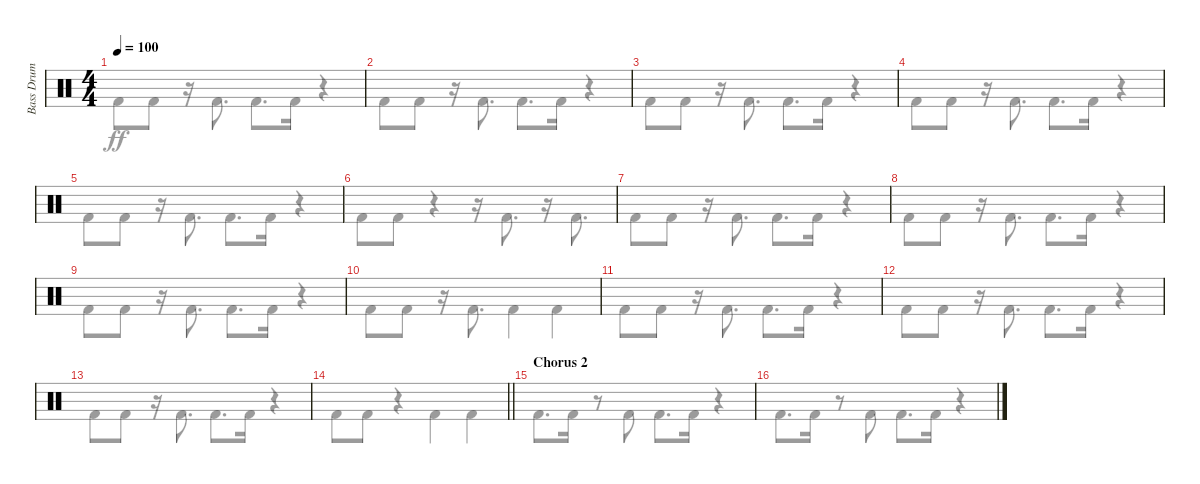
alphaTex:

\track ("Bass Drum" "Bass Drum") {instrument percussion}
\staff {score}
\articulation defaults
\voice
\ts (4 4)
\tempo 100
\clef neutral
\ks c
|
|
|
|
|
|
|
|
|
|
|
|
|
\barLineRight lightlight
|
\section ("" "Chorus 2")
|
\voice
\clef neutral
\ks c "Kick (hit) 2".8{dy ff} "Kick (hit) 2".8
r.16 "Kick (hit) 2".8{d} "Kick (hit) 2".8{d} "Kick (hit) 2".16 r.4 |
"Kick (hit) 2".8 "Kick (hit) 2".8 r.16 "Kick (hit) 2".8{d} "Kick (hit) 2".8{d} "Kick (hit) 2".16 r.4 |
"Kick (hit) 2".8 "Kick (hit) 2".8 r.16 "Kick (hit) 2".8{d} "Kick (hit) 2".8{d} "Kick (hit) 2".16 r.4 |
"Kick (hit) 2".8 "Kick (hit) 2".8 r.16 "Kick (hit) 2".8{d} "Kick (hit) 2".8{d} "Kick (hit) 2".16 r.4 |
"Kick (hit) 2".8 "Kick (hit) 2".8 r.16 "Kick (hit) 2".8{d} "Kick (hit) 2".8{d} "Kick (hit) 2".16 r.4 |
"Kick (hit) 2".8 "Kick (hit) 2".8 r.4 r.16 "Kick (hit) 2".8{d} r.16 "Kick (hit) 2".8{d} |
"Kick (hit) 2".8 "Kick (hit) 2".8 r.16 "Kick (hit) 2".8{d} "Kick (hit) 2".8{d} "Kick (hit) 2".16 r.4 |
"Kick (hit) 2".8 "Kick (hit) 2".8 r.16 "Kick (hit) 2".8{d} "Kick (hit) 2".8{d} "Kick (hit) 2".16 r.4 |
"Kick (hit) 2".8 "Kick (hit) 2".8 r.16 "Kick (hit) 2".8{d} "Kick (hit) 2".8{d} "Kick (hit) 2".16 r.4 |
"Kick (hit) 2".8 "Kick (hit) 2".8 r.16 "Kick (hit) 2".8{d} "Kick (hit) 2".4 "Kick (hit) 2".4 |
"Kick (hit) 2".8 "Kick (hit) 2".8 r.16 "Kick (hit) 2".8{d} "Kick (hit) 2".8{d} "Kick (hit) 2".16 r.4 |
"Kick (hit) 2".8 "Kick (hit) 2".8 r.16 "Kick (hit) 2".8{d} "Kick (hit) 2".8{d} "Kick (hit) 2".16 r.4 |
"Kick (hit) 2".8 "Kick (hit) 2".8 r.16 "Kick (hit) 2".8{d} "Kick (hit) 2".8{d} "Kick (hit) 2".16 r.4 |
\barLineRight lightlight "Kick (hit) 2".8 "Kick (hit) 2".8
r.4 "Kick (hit) 2".4 "Kick (hit) 2".4 |
"Kick (hit) 2".8{d} "Kick (hit) 2".16 r.8 "Kick (hit) 2".8 "Kick (hit) 2".8{d} "Kick (hit) 2".16 r.4 |
"Kick (hit) 2".8{d} "Kick (hit) 2".16 r.8 "Kick (hit) 2".8 "Kick (hit) 2".8{d} "Kick (hit) 2".16 r.4
